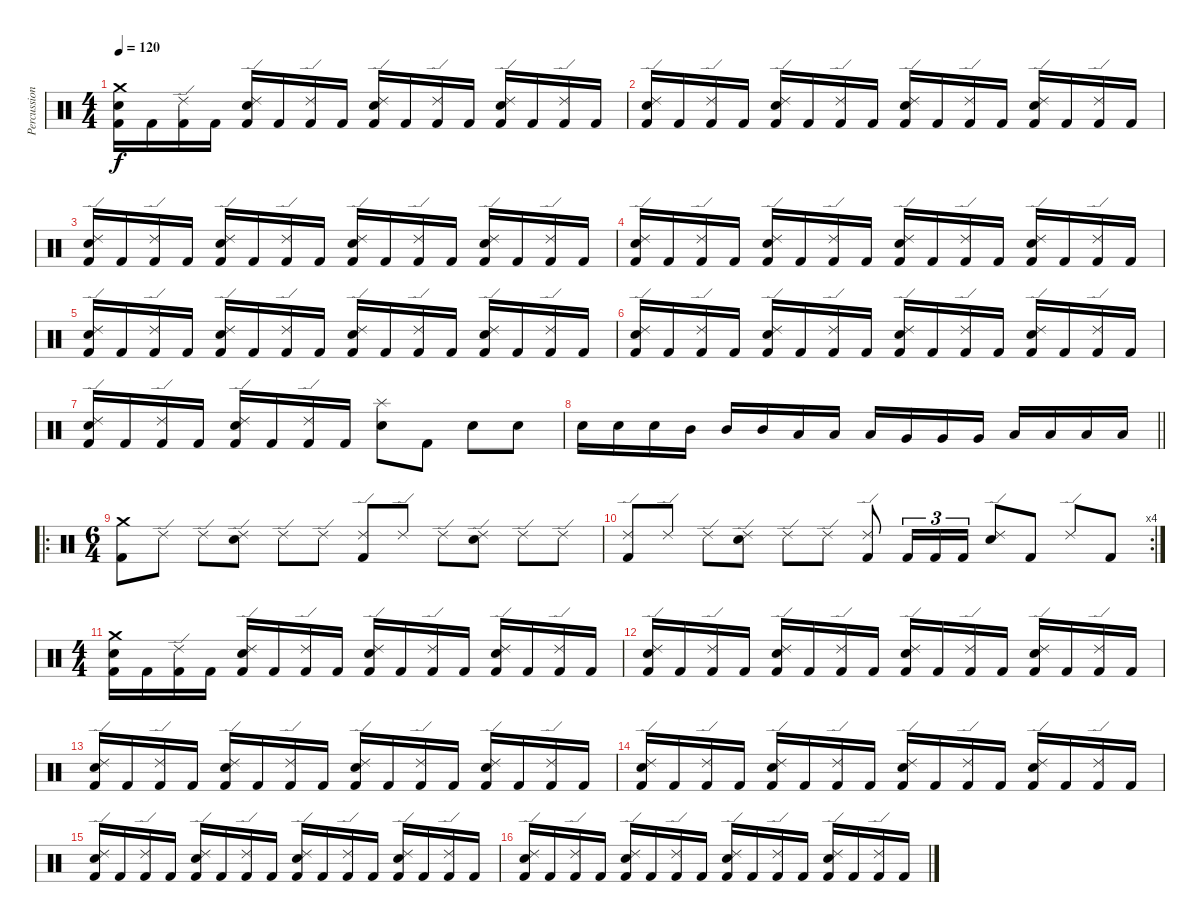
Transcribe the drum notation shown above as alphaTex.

\track ("Percussion" "Percussion") {instrument percussion}
\staff {score}
\articulation defaults
\ts (4 4)
\tempo 120
\clef neutral
\ks c
("Crash medium (hit)" "Electric Snare (hit)" "Kick (hit) 2").16{dy f} "Kick (hit) 2".16 ("Ride (edge) 2" "Kick (hit) 2").16 "Kick (hit) 2".16 ("Ride (edge) 2" "Electric Snare (hit)" "Kick (hit) 2").16 "Kick (hit) 2".16 ("Ride (edge) 2" "Kick (hit) 2").16 "Kick (hit) 2".16 ("Ride (edge) 2" "Electric Snare (hit)" "Kick (hit) 2").16 "Kick (hit) 2".16 ("Ride (edge) 2" "Kick (hit) 2").16 "Kick (hit) 2".16 ("Ride (edge) 2" "Electric Snare (hit)" "Kick (hit) 2").16 "Kick (hit) 2".16 ("Ride (edge) 2" "Kick (hit) 2").16 "Kick (hit) 2".16 |
("Ride (edge) 2" "Electric Snare (hit)" "Kick (hit) 2").16 "Kick (hit) 2".16 ("Ride (edge) 2" "Kick (hit) 2").16 "Kick (hit) 2".16 ("Ride (edge) 2" "Electric Snare (hit)" "Kick (hit) 2").16 "Kick (hit) 2".16 ("Ride (edge) 2" "Kick (hit) 2").16 "Kick (hit) 2".16 ("Ride (edge) 2" "Electric Snare (hit)" "Kick (hit) 2").16 "Kick (hit) 2".16 ("Ride (edge) 2" "Kick (hit) 2").16 "Kick (hit) 2".16 ("Ride (edge) 2" "Electric Snare (hit)" "Kick (hit) 2").16 "Kick (hit) 2".16 ("Ride (edge) 2" "Kick (hit) 2").16 "Kick (hit) 2".16 |
("Ride (edge) 2" "Electric Snare (hit)" "Kick (hit) 2").16 "Kick (hit) 2".16 ("Ride (edge) 2" "Kick (hit) 2").16 "Kick (hit) 2".16 ("Ride (edge) 2" "Electric Snare (hit)" "Kick (hit) 2").16 "Kick (hit) 2".16 ("Ride (edge) 2" "Kick (hit) 2").16 "Kick (hit) 2".16 ("Ride (edge) 2" "Electric Snare (hit)" "Kick (hit) 2").16 "Kick (hit) 2".16 ("Ride (edge) 2" "Kick (hit) 2").16 "Kick (hit) 2".16 ("Ride (edge) 2" "Electric Snare (hit)" "Kick (hit) 2").16 "Kick (hit) 2".16 ("Ride (edge) 2" "Kick (hit) 2").16 "Kick (hit) 2".16 |
("Ride (edge) 2" "Electric Snare (hit)" "Kick (hit) 2").16 "Kick (hit) 2".16 ("Ride (edge) 2" "Kick (hit) 2").16 "Kick (hit) 2".16 ("Ride (edge) 2" "Electric Snare (hit)" "Kick (hit) 2").16 "Kick (hit) 2".16 ("Ride (edge) 2" "Kick (hit) 2").16 "Kick (hit) 2".16 ("Ride (edge) 2" "Electric Snare (hit)" "Kick (hit) 2").16 "Kick (hit) 2".16 ("Ride (edge) 2" "Kick (hit) 2").16 "Kick (hit) 2".16 ("Ride (edge) 2" "Electric Snare (hit)" "Kick (hit) 2").16 "Kick (hit) 2".16 ("Ride (edge) 2" "Kick (hit) 2").16 "Kick (hit) 2".16 |
("Ride (edge) 2" "Electric Snare (hit)" "Kick (hit) 2").16 "Kick (hit) 2".16 ("Ride (edge) 2" "Kick (hit) 2").16 "Kick (hit) 2".16 ("Ride (edge) 2" "Electric Snare (hit)" "Kick (hit) 2").16 "Kick (hit) 2".16 ("Ride (edge) 2" "Kick (hit) 2").16 "Kick (hit) 2".16 ("Ride (edge) 2" "Electric Snare (hit)" "Kick (hit) 2").16 "Kick (hit) 2".16 ("Ride (edge) 2" "Kick (hit) 2").16 "Kick (hit) 2".16 ("Ride (edge) 2" "Electric Snare (hit)" "Kick (hit) 2").16 "Kick (hit) 2".16 ("Ride (edge) 2" "Kick (hit) 2").16 "Kick (hit) 2".16 |
("Ride (edge) 2" "Electric Snare (hit)" "Kick (hit) 2").16 "Kick (hit) 2".16 ("Ride (edge) 2" "Kick (hit) 2").16 "Kick (hit) 2".16 ("Ride (edge) 2" "Electric Snare (hit)" "Kick (hit) 2").16 "Kick (hit) 2".16 ("Ride (edge) 2" "Kick (hit) 2").16 "Kick (hit) 2".16 ("Ride (edge) 2" "Electric Snare (hit)" "Kick (hit) 2").16 "Kick (hit) 2".16 ("Ride (edge) 2" "Kick (hit) 2").16 "Kick (hit) 2".16 ("Ride (edge) 2" "Electric Snare (hit)" "Kick (hit) 2").16 "Kick (hit) 2".16 ("Ride (edge) 2" "Kick (hit) 2").16 "Kick (hit) 2".16 |
("Ride (edge) 2" "Electric Snare (hit)" "Kick (hit) 2").16 "Kick (hit) 2".16 ("Ride (edge) 2" "Kick (hit) 2").16 "Kick (hit) 2".16 ("Ride (edge) 2" "Electric Snare (hit)" "Kick (hit) 2").16 "Kick (hit) 2".16 ("Ride (edge) 2" "Kick (hit) 2").16 "Kick (hit) 2".16 ("Splash (hit)" "Electric Snare (hit)").8 "Kick (hit) 2".8 "Electric Snare (hit)".8 "Electric Snare (hit)".8 |
\barLineRight lightlight "Electric Snare (hit)".16 "Electric Snare (hit)".16 "Electric Snare (hit)".16 "Mid Tom (hit)".16 "Mid Tom (hit)".16 "Mid Tom (hit)".16 "Low Tom (hit)".16 "Low Tom (hit)".16 "Low Tom (hit)".16 "Very Low Tom (hit)".16 "Very Low Tom (hit)".16 "Very Low Tom (hit)".16 "Low Floor Tom (hit)".16 "Low Floor Tom (hit)".16 "Low Floor Tom (hit)".16 "Low Floor Tom (hit)".16
|
\ro
\ts (6 4)
("Crash medium (hit)" "Kick (hit) 2").8 "Ride (edge) 2".8 "Ride (edge) 2".8 ("Ride (edge) 2" "Electric Snare (hit)").8 "Ride (edge) 2".8 "Ride (edge) 2".8 ("Ride (edge) 2" "Kick (hit) 2").8 "Ride (edge) 2".8 "Ride (edge) 2".8 ("Ride (edge) 2" "Electric Snare (hit)").8 "Ride (edge) 2".8 "Ride (edge) 2".8 |
\rc 4
("Ride (edge) 2" "Kick (hit) 2").8 "Ride (edge) 2".8 "Ride (edge) 2".8 ("Ride (edge) 2" "Electric Snare (hit)").8 "Ride (edge) 2".8 "Ride (edge) 2".8 ("Ride (edge) 2" "Kick (hit) 2").8 "Kick (hit) 2".16{tu (3 2)} "Kick (hit) 2".16{tu (3 2)} "Kick (hit) 2".16{tu (3 2)} ("Ride (edge) 2" "Electric Snare (hit)").8 "Kick (hit) 2".8 "Ride (edge) 2".8 "Kick (hit) 2".8 |
\ts (4 4)
("Crash medium (hit)" "Electric Snare (hit)" "Kick (hit) 2").16 "Kick (hit) 2".16 ("Ride (edge) 2" "Kick (hit) 2").16 "Kick (hit) 2".16 ("Ride (edge) 2" "Electric Snare (hit)" "Kick (hit) 2").16 "Kick (hit) 2".16 ("Ride (edge) 2" "Kick (hit) 2").16 "Kick (hit) 2".16 ("Ride (edge) 2" "Electric Snare (hit)" "Kick (hit) 2").16 "Kick (hit) 2".16 ("Ride (edge) 2" "Kick (hit) 2").16 "Kick (hit) 2".16 ("Ride (edge) 2" "Electric Snare (hit)" "Kick (hit) 2").16 "Kick (hit) 2".16 ("Ride (edge) 2" "Kick (hit) 2").16 "Kick (hit) 2".16 |
("Ride (edge) 2" "Electric Snare (hit)" "Kick (hit) 2").16 "Kick (hit) 2".16 ("Ride (edge) 2" "Kick (hit) 2").16 "Kick (hit) 2".16 ("Ride (edge) 2" "Electric Snare (hit)" "Kick (hit) 2").16 "Kick (hit) 2".16 ("Ride (edge) 2" "Kick (hit) 2").16 "Kick (hit) 2".16 ("Ride (edge) 2" "Electric Snare (hit)" "Kick (hit) 2").16 "Kick (hit) 2".16 ("Ride (edge) 2" "Kick (hit) 2").16 "Kick (hit) 2".16 ("Ride (edge) 2" "Electric Snare (hit)" "Kick (hit) 2").16 "Kick (hit) 2".16 ("Ride (edge) 2" "Kick (hit) 2").16 "Kick (hit) 2".16 |
("Ride (edge) 2" "Electric Snare (hit)" "Kick (hit) 2").16 "Kick (hit) 2".16 ("Ride (edge) 2" "Kick (hit) 2").16 "Kick (hit) 2".16 ("Ride (edge) 2" "Electric Snare (hit)" "Kick (hit) 2").16 "Kick (hit) 2".16 ("Ride (edge) 2" "Kick (hit) 2").16 "Kick (hit) 2".16 ("Ride (edge) 2" "Electric Snare (hit)" "Kick (hit) 2").16 "Kick (hit) 2".16 ("Ride (edge) 2" "Kick (hit) 2").16 "Kick (hit) 2".16 ("Ride (edge) 2" "Electric Snare (hit)" "Kick (hit) 2").16 "Kick (hit) 2".16 ("Ride (edge) 2" "Kick (hit) 2").16 "Kick (hit) 2".16 |
("Ride (edge) 2" "Electric Snare (hit)" "Kick (hit) 2").16 "Kick (hit) 2".16 ("Ride (edge) 2" "Kick (hit) 2").16 "Kick (hit) 2".16 ("Ride (edge) 2" "Electric Snare (hit)" "Kick (hit) 2").16 "Kick (hit) 2".16 ("Ride (edge) 2" "Kick (hit) 2").16 "Kick (hit) 2".16 ("Ride (edge) 2" "Electric Snare (hit)" "Kick (hit) 2").16 "Kick (hit) 2".16 ("Ride (edge) 2" "Kick (hit) 2").16 "Kick (hit) 2".16 ("Ride (edge) 2" "Electric Snare (hit)" "Kick (hit) 2").16 "Kick (hit) 2".16 ("Ride (edge) 2" "Kick (hit) 2").16 "Kick (hit) 2".16 |
("Ride (edge) 2" "Electric Snare (hit)" "Kick (hit) 2").16 "Kick (hit) 2".16 ("Ride (edge) 2" "Kick (hit) 2").16 "Kick (hit) 2".16 ("Ride (edge) 2" "Electric Snare (hit)" "Kick (hit) 2").16 "Kick (hit) 2".16 ("Ride (edge) 2" "Kick (hit) 2").16 "Kick (hit) 2".16 ("Ride (edge) 2" "Electric Snare (hit)" "Kick (hit) 2").16 "Kick (hit) 2".16 ("Ride (edge) 2" "Kick (hit) 2").16 "Kick (hit) 2".16 ("Ride (edge) 2" "Electric Snare (hit)" "Kick (hit) 2").16 "Kick (hit) 2".16 ("Ride (edge) 2" "Kick (hit) 2").16 "Kick (hit) 2".16 |
("Ride (edge) 2" "Electric Snare (hit)" "Kick (hit) 2").16 "Kick (hit) 2".16 ("Ride (edge) 2" "Kick (hit) 2").16 "Kick (hit) 2".16 ("Ride (edge) 2" "Electric Snare (hit)" "Kick (hit) 2").16 "Kick (hit) 2".16 ("Ride (edge) 2" "Kick (hit) 2").16 "Kick (hit) 2".16 ("Ride (edge) 2" "Electric Snare (hit)" "Kick (hit) 2").16 "Kick (hit) 2".16 ("Ride (edge) 2" "Kick (hit) 2").16 "Kick (hit) 2".16 ("Ride (edge) 2" "Electric Snare (hit)" "Kick (hit) 2").16 "Kick (hit) 2".16 ("Ride (edge) 2" "Kick (hit) 2").16 "Kick (hit) 2".16
